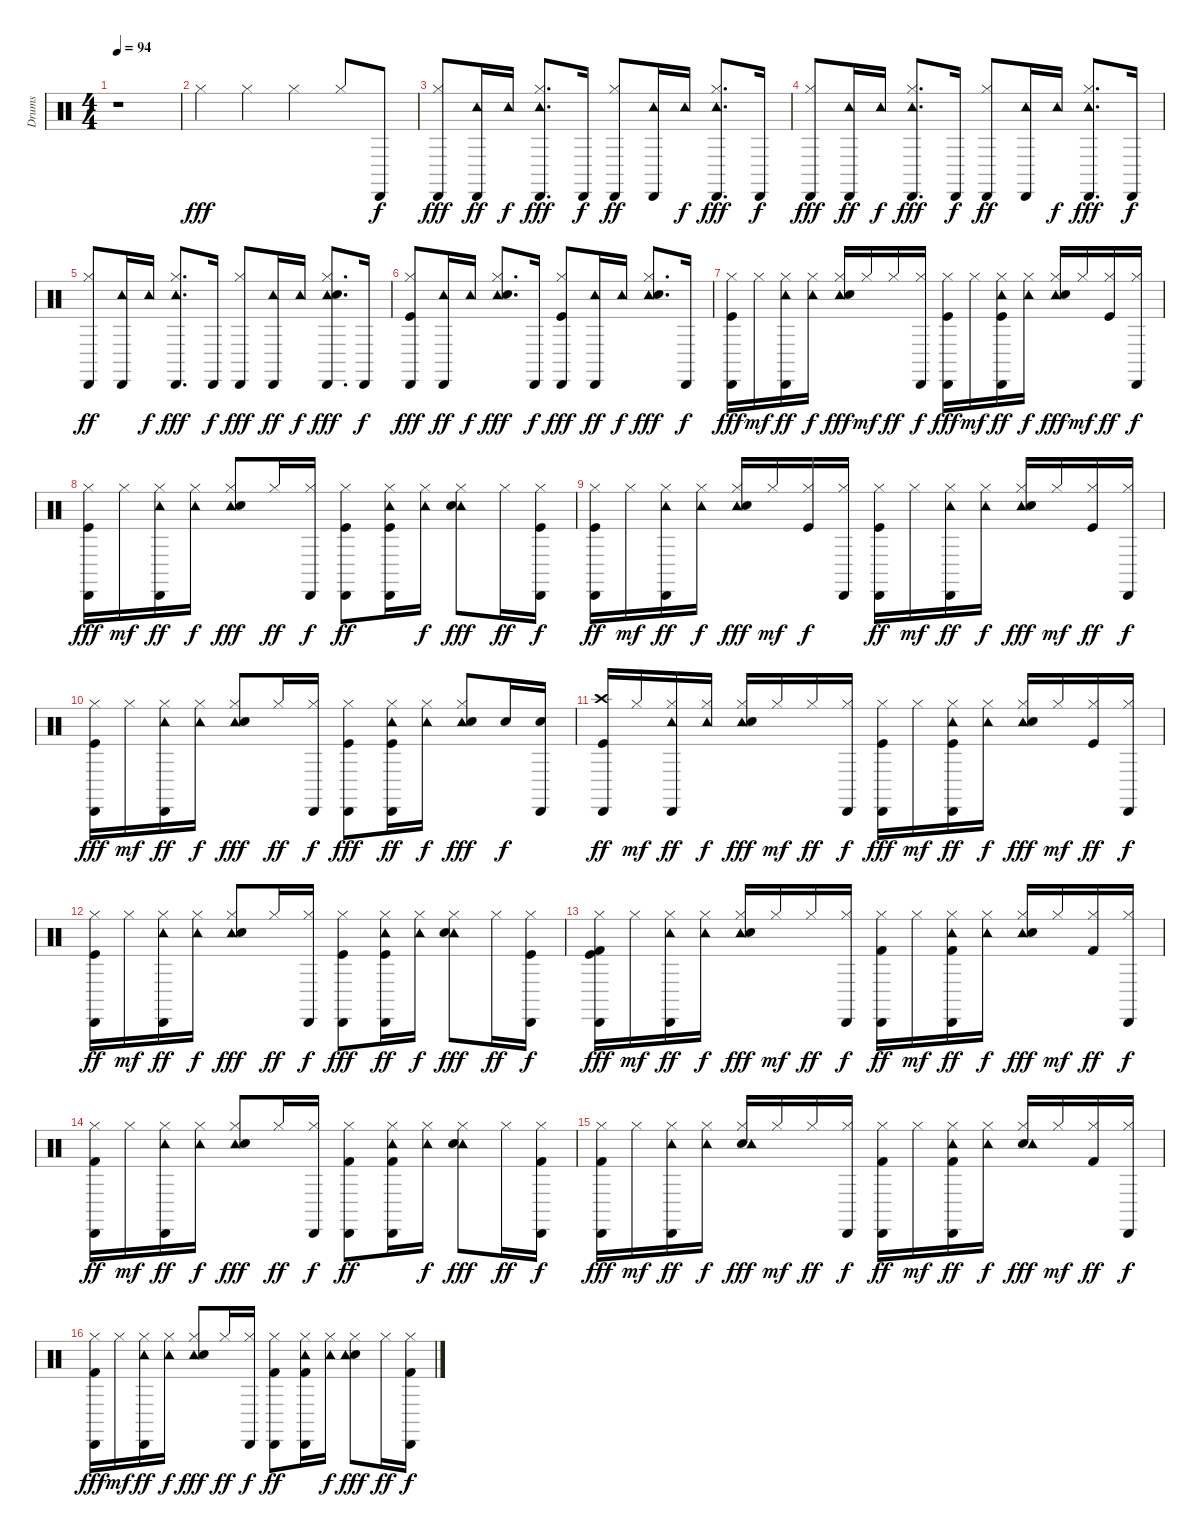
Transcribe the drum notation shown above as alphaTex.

\track ("Drums" "Drums") {instrument percussion}
\staff {score}
\articulation defaults
\ts (4 4)
\tempo 94
\clef neutral
\ks c
r.1{dy fff} |
"Hi-Hat (closed)".4 "Hi-Hat (closed)".4 "Hi-Hat (closed)".4 "Hi-Hat (closed)".8 "Cabasa (hit)".8{dy f} |
("Hi-Hat (closed)" "Cabasa (hit)").8{dy fff} ("Cabasa (hit)" "Tambourine (hit)").16{dy ff} "Tambourine (hit)".16{dy f} ("Hi-Hat (closed)" "Cabasa (hit)" "Tambourine (hit)").8{d dy fff} "Cabasa (hit)".16{dy f} ("Hi-Hat (closed)" "Cabasa (hit)").8{dy ff} ("Cabasa (hit)" "Tambourine (hit)").16 "Tambourine (hit)".16{dy f} ("Hi-Hat (closed)" "Cabasa (hit)" "Tambourine (hit)").8{d dy fff} "Cabasa (hit)".16{dy f} |
("Hi-Hat (closed)" "Cabasa (hit)").8{dy fff} ("Cabasa (hit)" "Tambourine (hit)").16{dy ff} "Tambourine (hit)".16{dy f} ("Hi-Hat (closed)" "Cabasa (hit)" "Tambourine (hit)").8{d dy fff} "Cabasa (hit)".16{dy f} ("Hi-Hat (closed)" "Cabasa (hit)").8{dy ff} ("Cabasa (hit)" "Tambourine (hit)").16 "Tambourine (hit)".16{dy f} ("Hi-Hat (closed)" "Cabasa (hit)" "Tambourine (hit)").8{d dy fff} "Cabasa (hit)".16{dy f} |
("Hi-Hat (closed)" "Cabasa (hit)").8{dy ff} ("Cabasa (hit)" "Tambourine (hit)").16 "Tambourine (hit)".16{dy f} ("Hi-Hat (closed)" "Cabasa (hit)" "Tambourine (hit)").8{d dy fff} "Cabasa (hit)".16{dy f} ("Hi-Hat (closed)" "Cabasa (hit)").8{dy fff} ("Cabasa (hit)" "Tambourine (hit)").16{dy ff} "Tambourine (hit)".16{dy f} ("Hi-Hat (closed)" "Cabasa (hit)" "Tambourine (hit)" "Snare (hit) 2").8{d dy fff} "Cabasa (hit)".16{dy f} |
("Hi-Hat (closed)" "Cabasa (hit)" "Kick (hit)").8{dy fff} ("Cabasa (hit)" "Tambourine (hit)").16{dy ff} "Tambourine (hit)".16{dy f} ("Hi-Hat (closed)" "Tambourine (hit)" "Snare (hit) 2").8{d dy fff} "Cabasa (hit)".16{dy f} ("Hi-Hat (closed)" "Cabasa (hit)" "Kick (hit)").8{dy fff} ("Cabasa (hit)" "Tambourine (hit)").16{dy ff} "Tambourine (hit)".16{dy f} ("Hi-Hat (closed)" "Tambourine (hit)" "Snare (hit) 2").8{d dy fff} "Cabasa (hit)".16{dy f} |
("Hi-Hat (closed)" "Cabasa (hit)" "Kick (hit)").16{dy fff} "Hi-Hat (closed)".16{dy mf} ("Hi-Hat (closed)" "Cabasa (hit)" "Tambourine (hit)").16{dy ff} ("Hi-Hat (closed)" "Tambourine (hit)").16{dy f} ("Hi-Hat (closed)" "Tambourine (hit)" "Snare (hit) 2").16{dy fff} "Hi-Hat (closed)".16{dy mf} "Hi-Hat (closed)".16{dy ff} ("Hi-Hat (closed)" "Cabasa (hit)").16{dy f} ("Hi-Hat (closed)" "Cabasa (hit)" "Kick (hit)").16{dy fff} "Hi-Hat (closed)".16{dy mf} ("Hi-Hat (closed)" "Cabasa (hit)" "Tambourine (hit)" "Kick (hit)").16{dy ff} ("Hi-Hat (closed)" "Tambourine (hit)").16{dy f} ("Hi-Hat (closed)" "Tambourine (hit)" "Snare (hit) 2").16{dy fff} "Hi-Hat (closed)".16{dy mf} ("Hi-Hat (closed)" "Kick (hit)").16{dy ff} ("Hi-Hat (closed)" "Cabasa (hit)").16{dy f} |
("Hi-Hat (closed)" "Cabasa (hit)" "Kick (hit)").16{dy fff} "Hi-Hat (closed)".16{dy mf} ("Hi-Hat (closed)" "Cabasa (hit)" "Tambourine (hit)").16{dy ff} ("Hi-Hat (closed)" "Tambourine (hit)").16{dy f} ("Hi-Hat (closed)" "Tambourine (hit)" "Snare (hit) 2").8{dy fff} "Hi-Hat (closed)".16{dy ff} ("Hi-Hat (closed)" "Cabasa (hit)").16{dy f} ("Hi-Hat (closed)" "Cabasa (hit)" "Kick (hit)").8{dy ff} ("Hi-Hat (closed)" "Cabasa (hit)" "Tambourine (hit)" "Kick (hit)").16 ("Hi-Hat (closed)" "Tambourine (hit)").16{dy f} ("Hi-Hat (closed)" "Tambourine (hit)" "Snare (hit) 2").8{dy fff} "Hi-Hat (closed)".16{dy ff} ("Hi-Hat (closed)" "Cabasa (hit)" "Kick (hit)").16{dy f} |
("Hi-Hat (closed)" "Cabasa (hit)" "Kick (hit)").16{dy ff} "Hi-Hat (closed)".16{dy mf} ("Hi-Hat (closed)" "Cabasa (hit)" "Tambourine (hit)").16{dy ff} ("Hi-Hat (closed)" "Tambourine (hit)").16{dy f} ("Hi-Hat (closed)" "Tambourine (hit)" "Snare (hit) 2").16{dy fff} "Hi-Hat (closed)".16{dy mf} ("Hi-Hat (closed)" "Kick (hit)").16{dy f} ("Hi-Hat (closed)" "Cabasa (hit)").16 ("Hi-Hat (closed)" "Cabasa (hit)" "Kick (hit)").16{dy ff} "Hi-Hat (closed)".16{dy mf} ("Hi-Hat (closed)" "Cabasa (hit)" "Tambourine (hit)").16{dy ff} ("Hi-Hat (closed)" "Tambourine (hit)").16{dy f} ("Hi-Hat (closed)" "Tambourine (hit)" "Snare (hit) 2").16{dy fff} "Hi-Hat (closed)".16{dy mf} ("Hi-Hat (closed)" "Kick (hit)").16{dy ff} ("Hi-Hat (closed)" "Cabasa (hit)").16{dy f} |
("Hi-Hat (closed)" "Cabasa (hit)" "Kick (hit)").16{dy fff} "Hi-Hat (closed)".16{dy mf} ("Hi-Hat (closed)" "Cabasa (hit)" "Tambourine (hit)").16{dy ff} ("Hi-Hat (closed)" "Tambourine (hit)").16{dy f} ("Hi-Hat (closed)" "Tambourine (hit)" "Snare (hit) 2").8{dy fff} "Hi-Hat (closed)".16{dy ff} ("Hi-Hat (closed)" "Cabasa (hit)").16{dy f} ("Hi-Hat (closed)" "Cabasa (hit)" "Kick (hit)").8{dy fff} ("Hi-Hat (closed)" "Cabasa (hit)" "Tambourine (hit)" "Kick (hit)").16{dy ff} ("Hi-Hat (closed)" "Tambourine (hit)").16{dy f} ("Hi-Hat (closed)" "Tambourine (hit)" "Snare (hit) 2").8{dy fff} "Snare (hit) 2".16{dy f} ("Cabasa (hit)" "Snare (hit) 2").16 |
("Cabasa (hit)" "Crash high (hit)" "Kick (hit)").16{dy ff} "Hi-Hat (closed)".16{dy mf} ("Hi-Hat (closed)" "Tambourine (hit)" "Cabasa (hit)").16{dy ff} ("Hi-Hat (closed)" "Tambourine (hit)").16{dy f} ("Hi-Hat (closed)" "Tambourine (hit)" "Snare (hit) 2").16{dy fff} "Hi-Hat (closed)".16{dy mf} "Hi-Hat (closed)".16{dy ff} ("Hi-Hat (closed)" "Cabasa (hit)").16{dy f} ("Hi-Hat (closed)" "Cabasa (hit)" "Kick (hit)").16{dy fff} "Hi-Hat (closed)".16{dy mf} ("Hi-Hat (closed)" "Tambourine (hit)" "Cabasa (hit)" "Kick (hit)").16{dy ff} ("Hi-Hat (closed)" "Tambourine (hit)").16{dy f} ("Hi-Hat (closed)" "Tambourine (hit)" "Snare (hit) 2").16{dy fff} "Hi-Hat (closed)".16{dy mf} ("Hi-Hat (closed)" "Kick (hit)").16{dy ff} ("Hi-Hat (closed)" "Cabasa (hit)").16{dy f} |
("Hi-Hat (closed)" "Cabasa (hit)" "Kick (hit)").16{dy ff} "Hi-Hat (closed)".16{dy mf} ("Hi-Hat (closed)" "Tambourine (hit)" "Cabasa (hit)").16{dy ff} ("Hi-Hat (closed)" "Tambourine (hit)").16{dy f} ("Hi-Hat (closed)" "Tambourine (hit)" "Snare (hit) 2").8{dy fff} "Hi-Hat (closed)".16{dy ff} ("Hi-Hat (closed)" "Cabasa (hit)").16{dy f} ("Hi-Hat (closed)" "Cabasa (hit)" "Kick (hit)").8{dy fff} ("Hi-Hat (closed)" "Tambourine (hit)" "Cabasa (hit)" "Kick (hit)").16{dy ff} ("Hi-Hat (closed)" "Tambourine (hit)").16{dy f} ("Hi-Hat (closed)" "Tambourine (hit)" "Snare (hit) 2").8{dy fff} "Hi-Hat (closed)".16{dy ff} ("Hi-Hat (closed)" "Cabasa (hit)" "Kick (hit)").16{dy f} |
("Kick (hit) 2" "Cabasa (hit)" "Hi-Hat (closed)" "Kick (hit)").16{dy fff} "Hi-Hat (closed)".16{dy mf} ("Tambourine (hit)" "Hi-Hat (closed)" "Cabasa (hit)").16{dy ff} ("Tambourine (hit)" "Hi-Hat (closed)").16{dy f} ("Tambourine (hit)" "Hi-Hat (closed)" "Snare (hit) 2").16{dy fff} "Hi-Hat (closed)".16{dy mf} "Hi-Hat (closed)".16{dy ff} ("Hi-Hat (closed)" "Cabasa (hit)").16{dy f} ("Kick (hit) 2" "Hi-Hat (closed)" "Cabasa (hit)").16{dy ff} "Hi-Hat (closed)".16{dy mf} ("Hi-Hat (closed)" "Tambourine (hit)" "Cabasa (hit)" "Kick (hit) 2").16{dy ff} ("Hi-Hat (closed)" "Tambourine (hit)").16{dy f} ("Hi-Hat (closed)" "Tambourine (hit)" "Snare (hit) 2").16{dy fff} "Hi-Hat (closed)".16{dy mf} ("Kick (hit) 2" "Hi-Hat (closed)").16{dy ff} ("Cabasa (hit)" "Hi-Hat (closed)").16{dy f} |
("Kick (hit) 2" "Hi-Hat (closed)" "Cabasa (hit)").16{dy ff} "Hi-Hat (closed)".16{dy mf} ("Hi-Hat (closed)" "Cabasa (hit)" "Tambourine (hit)").16{dy ff} ("Tambourine (hit)" "Hi-Hat (closed)").16{dy f} ("Tambourine (hit)" "Snare (hit) 2" "Hi-Hat (closed)").8{dy fff} "Hi-Hat (closed)".16{dy ff} ("Hi-Hat (closed)" "Cabasa (hit)").16{dy f} ("Kick (hit) 2" "Hi-Hat (closed)" "Cabasa (hit)").8{dy ff} ("Kick (hit) 2" "Cabasa (hit)" "Tambourine (hit)" "Hi-Hat (closed)").16 ("Hi-Hat (closed)" "Tambourine (hit)").16{dy f} ("Tambourine (hit)" "Hi-Hat (closed)" "Snare (hit) 2").8{dy fff} "Hi-Hat (closed)".16{dy ff} ("Hi-Hat (closed)" "Kick (hit) 2" "Cabasa (hit)").16{dy f} |
("Kick (hit) 2" "Cabasa (hit)" "Hi-Hat (closed)").16{dy fff} "Hi-Hat (closed)".16{dy mf} ("Cabasa (hit)" "Tambourine (hit)" "Hi-Hat (closed)").16{dy ff} ("Hi-Hat (closed)" "Tambourine (hit)").16{dy f} ("Snare (hit) 2" "Tambourine (hit)" "Hi-Hat (closed)").16{dy fff} "Hi-Hat (closed)".16{dy mf} "Hi-Hat (closed)".16{dy ff} ("Cabasa (hit)" "Hi-Hat (closed)").16{dy f} ("Kick (hit) 2" "Hi-Hat (closed)" "Cabasa (hit)").16{dy ff} "Hi-Hat (closed)".16{dy mf} ("Kick (hit) 2" "Hi-Hat (closed)" "Cabasa (hit)" "Tambourine (hit)").16{dy ff} ("Tambourine (hit)" "Hi-Hat (closed)").16{dy f} ("Snare (hit) 2" "Tambourine (hit)" "Hi-Hat (closed)").16{dy fff} "Hi-Hat (closed)".16{dy mf} ("Kick (hit) 2" "Hi-Hat (closed)").16{dy ff} ("Hi-Hat (closed)" "Cabasa (hit)").16{dy f} |
("Kick (hit) 2" "Cabasa (hit)" "Hi-Hat (closed)").16{dy fff} "Hi-Hat (closed)".16{dy mf} ("Hi-Hat (closed)" "Cabasa (hit)" "Tambourine (hit)").16{dy ff} ("Tambourine (hit)" "Hi-Hat (closed)").16{dy f} ("Tambourine (hit)" "Hi-Hat (closed)" "Snare (hit) 2").8{dy fff} "Hi-Hat (closed)".16{dy ff} ("Hi-Hat (closed)" "Cabasa (hit)").16{dy f} ("Kick (hit) 2" "Hi-Hat (closed)" "Cabasa (hit)").8{dy ff} ("Kick (hit) 2" "Tambourine (hit)" "Cabasa (hit)" "Hi-Hat (closed)").16 ("Tambourine (hit)" "Hi-Hat (closed)").16{dy f} ("Snare (hit) 2" "Tambourine (hit)" "Hi-Hat (closed)").8{dy fff} "Hi-Hat (closed)".16{dy ff} ("Hi-Hat (closed)" "Kick (hit) 2" "Cabasa (hit)").16{dy f}
